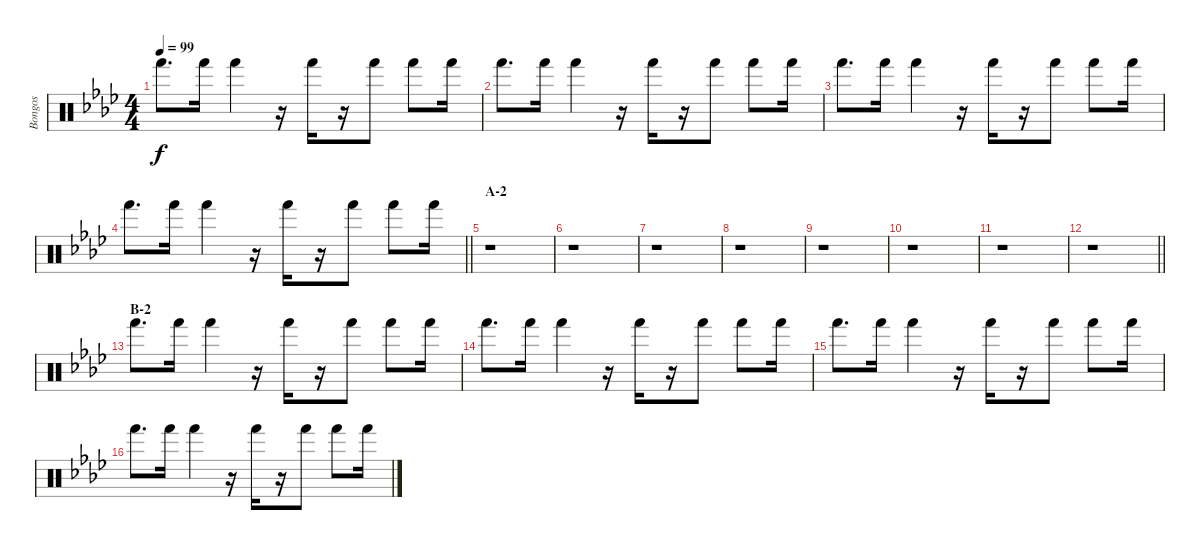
\track ("Bongos" "Bongos") {instrument percussion}
\staff {score}
\articulation defaults
\ts (4 4)
\tempo 99
\clef neutral
\ks ab "Hand (hit)".8{d dy f} "Hand (hit)".16 "Hand (hit)".4
r.16 "Hand (hit)".16 r.16 "Hand (hit)".8 "Hand (hit)".8 "Hand (hit)".16 |
"Hand (hit)".8{d} "Hand (hit)".16 "Hand (hit)".4 r.16 "Hand (hit)".16 r.16 "Hand (hit)".8 "Hand (hit)".8 "Hand (hit)".16 |
"Hand (hit)".8{d} "Hand (hit)".16 "Hand (hit)".4 r.16 "Hand (hit)".16 r.16 "Hand (hit)".8 "Hand (hit)".8 "Hand (hit)".16 |
\barLineRight lightlight "Hand (hit)".8{d} "Hand (hit)".16 "Hand (hit)".4
r.16 "Hand (hit)".16 r.16 "Hand (hit)".8 "Hand (hit)".8 "Hand (hit)".16 |
\section ("" "A-2")
r.1 |
r.1 |
r.1 |
r.1 |
r.1 |
r.1 |
r.1 |
\barLineRight lightlight
r.1 |
\section ("" "B-2")
"Hand (hit)".8{d} "Hand (hit)".16 "Hand (hit)".4 r.16 "Hand (hit)".16 r.16 "Hand (hit)".8 "Hand (hit)".8 "Hand (hit)".16 |
"Hand (hit)".8{d} "Hand (hit)".16 "Hand (hit)".4 r.16 "Hand (hit)".16 r.16 "Hand (hit)".8 "Hand (hit)".8 "Hand (hit)".16 |
"Hand (hit)".8{d} "Hand (hit)".16 "Hand (hit)".4 r.16 "Hand (hit)".16 r.16 "Hand (hit)".8 "Hand (hit)".8 "Hand (hit)".16 |
"Hand (hit)".8{d} "Hand (hit)".16 "Hand (hit)".4 r.16 "Hand (hit)".16 r.16 "Hand (hit)".8 "Hand (hit)".8 "Hand (hit)".16
